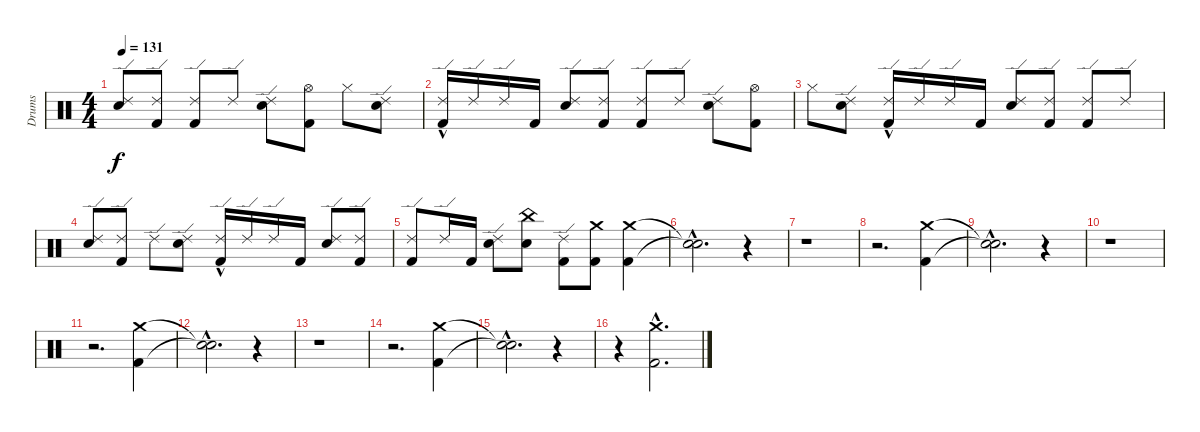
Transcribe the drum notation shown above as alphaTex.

\track ("Drums" "Drums") {instrument percussion}
\staff {score}
\articulation defaults
\ts (4 4)
\tempo 131
\clef neutral
\ks c
("Electric Snare (hit)" "Ride (edge) 2").8{dy f} ("Kick (hit) 2" "Ride (edge) 2").8 ("Kick (hit) 2" "Ride (edge) 2").8 "Ride (edge) 2".8 ("Electric Snare (hit)" "Ride (edge) 2").8 ("Hi-Hat (open)" "Kick (hit) 2").8 "Hi-Hat (closed)".8 ("Electric Snare (hit)" "Ride (edge) 2").8 |
("Ride (edge) 2" "Kick (hit) 2"{hac}).16 "Ride (edge) 2".16 "Ride (edge) 2".16 "Kick (hit) 2".16 ("Electric Snare (hit)" "Ride (edge) 2").8 ("Kick (hit) 2" "Ride (edge) 2").8 ("Kick (hit) 2" "Ride (edge) 2").8 "Ride (edge) 2".8 ("Electric Snare (hit)" "Ride (edge) 2").8 ("Hi-Hat (open)" "Kick (hit) 2").8 |
"Hi-Hat (closed)".8 ("Electric Snare (hit)" "Ride (edge) 2").8 ("Ride (edge) 2" "Kick (hit) 2"{hac}).16 "Ride (edge) 2".16 "Ride (edge) 2".16 "Kick (hit) 2".16 ("Electric Snare (hit)" "Ride (edge) 2").8 ("Kick (hit) 2" "Ride (edge) 2").8 ("Kick (hit) 2" "Ride (edge) 2").8 "Ride (edge) 2".8 |
("Electric Snare (hit)" "Ride (edge) 2").8 ("Kick (hit) 2" "Ride (edge) 2").8 "Ride (edge) 2".8 ("Electric Snare (hit)" "Ride (edge) 2").8 ("Ride (edge) 2" "Kick (hit) 2"{hac}).16 "Ride (edge) 2".16 "Ride (edge) 2".16 "Kick (hit) 2".16 ("Electric Snare (hit)" "Ride (edge) 2").8 ("Kick (hit) 2" "Ride (edge) 2").8 |
("Kick (hit) 2" "Ride (edge) 2").8 "Ride (edge) 2".16 "Kick (hit) 2".16 ("Electric Snare (hit)" "Ride (edge) 2").8 ("China (hit)" "Electric Snare (hit)").8 ("Ride (edge) 2" "Kick (hit) 2").8 ("Crash medium (hit)" "Kick (hit) 2").8 ("Crash medium (hit)" "Kick (hit) 2").4 |
("Snare (hit)"{hac t} "Snare (hit)"{hac t}).2{d} r.4 |
r.1 |
r.2{d} ("Crash medium (hit)" "Kick (hit) 2").4 |
("Snare (hit)"{hac t} "Snare (hit)"{hac t}).2{d} r.4 |
r.1 |
r.2{d} ("Crash medium (hit)" "Kick (hit) 2").4 |
("Snare (hit)"{hac t} "Snare (hit)"{hac t}).2{d} r.4 |
r.1 |
r.2{d} ("Crash medium (hit)" "Kick (hit) 2").4 |
("Snare (hit)"{hac t} "Snare (hit)"{hac t}).2{d} r.4 |
r.4 ("Crash medium (hit)"{hac} "Kick (hit) 2"{hac}).2{d}
